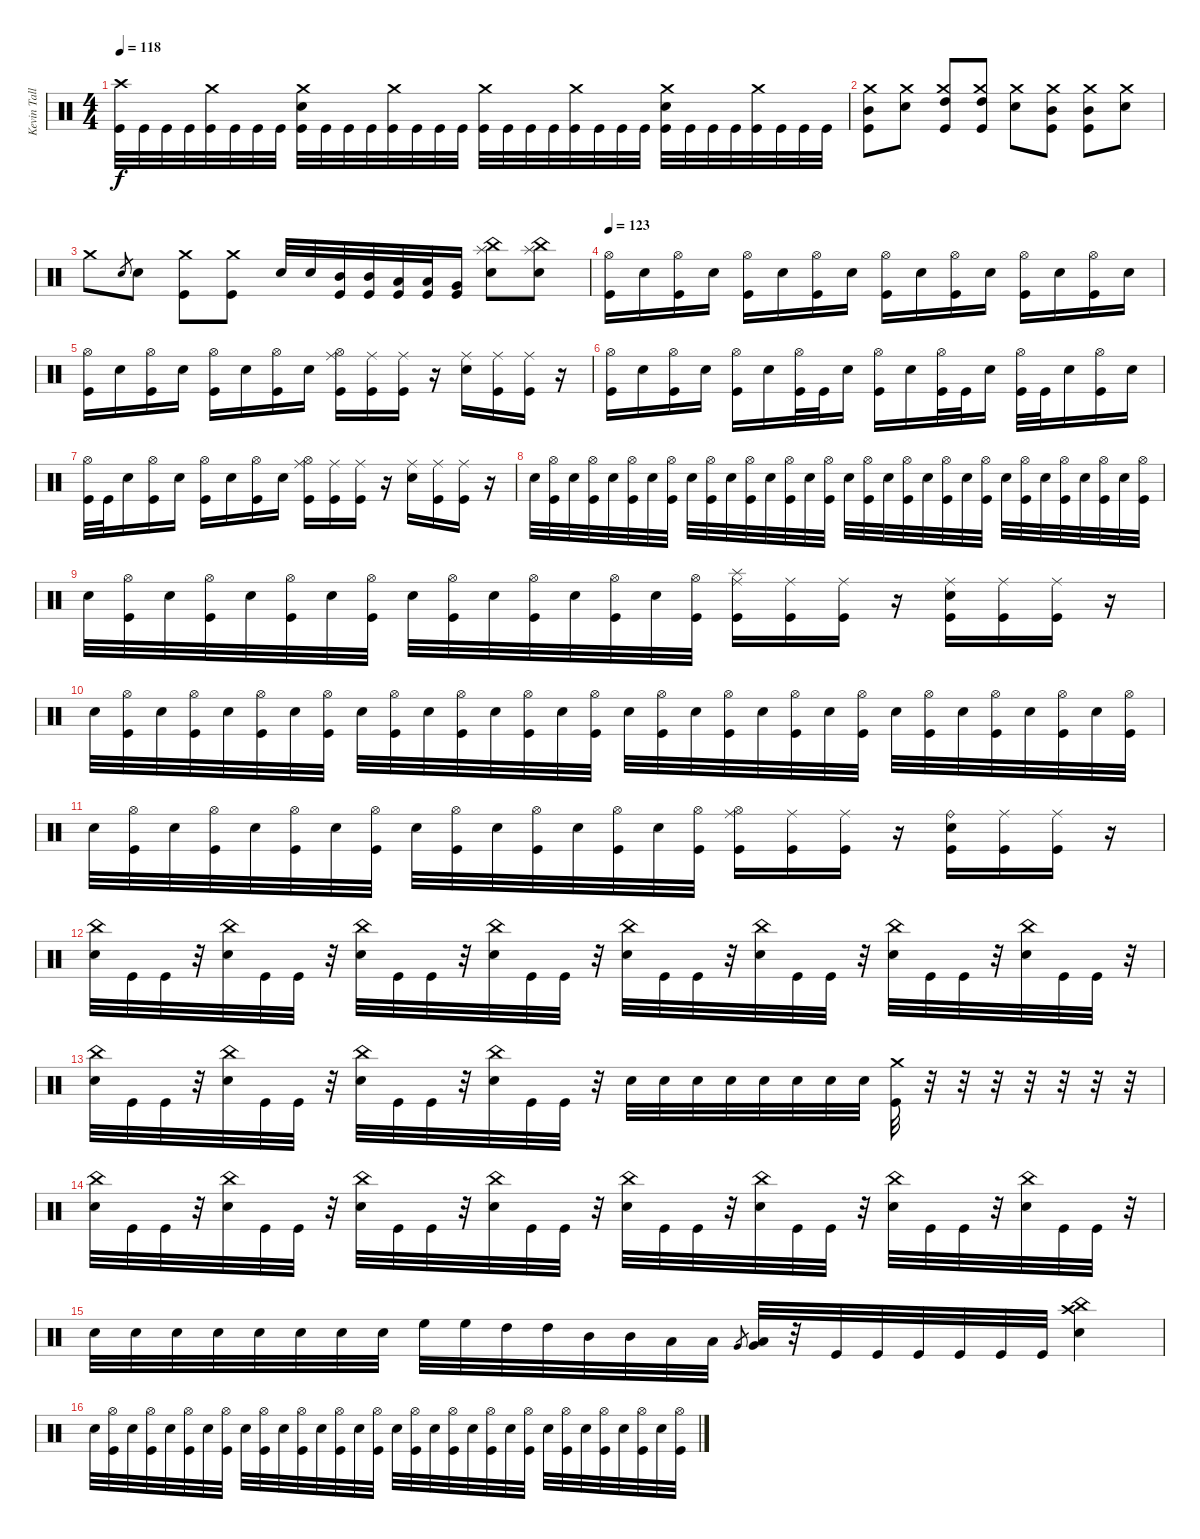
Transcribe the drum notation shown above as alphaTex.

\track ("Kevin Talley" "Kevin Tall") {instrument percussion}
\staff {score}
\articulation defaults
\ts (4 4)
\tempo 118
\clef neutral
\ks c
("Crash high (hit)" "Kick (hit)").32{dy f} "Kick (hit)".32 "Kick (hit)".32 "Kick (hit)".32 ("Crash medium (hit)" "Kick (hit)").32 "Kick (hit)".32 "Kick (hit)".32 "Kick (hit)".32 ("Crash medium (hit)" "Electric Snare (hit)" "Kick (hit)").32 "Kick (hit)".32 "Kick (hit)".32 "Kick (hit)".32 ("Crash medium (hit)" "Kick (hit)").32 "Kick (hit)".32 "Kick (hit)".32 "Kick (hit)".32 ("Crash medium (hit)" "Kick (hit)").32 "Kick (hit)".32 "Kick (hit)".32 "Kick (hit)".32 ("Crash medium (hit)" "Kick (hit)").32 "Kick (hit)".32 "Kick (hit)".32 "Kick (hit)".32 ("Crash medium (hit)" "Electric Snare (hit)" "Kick (hit)").32 "Kick (hit)".32 "Kick (hit)".32 "Kick (hit)".32 ("Crash medium (hit)" "Kick (hit)").32 "Kick (hit)".32 "Kick (hit)".32 "Kick (hit)".32 |
("Crash medium (hit)" "Mid Tom (hit)" "Kick (hit)").8 ("Crash medium (hit)" "Electric Snare (hit)").8 ("Crash medium (hit)" "High Tom (hit)" "Kick (hit)").8 ("Crash medium (hit)" "High Tom (hit)" "Kick (hit)").8 ("Crash medium (hit)" "Electric Snare (hit)").8 ("Crash medium (hit)" "Mid Tom (hit)" "Kick (hit)").8 ("Crash medium (hit)" "Mid Tom (hit)" "Kick (hit)").8 ("Crash medium (hit)" "Electric Snare (hit)").8 |
"Crash medium (hit)".8 "Electric Snare (hit)".8{gr} "Electric Snare (hit)".8 ("Crash medium (hit)" "Kick (hit)").8 ("Crash medium (hit)" "Kick (hit)").8 "Electric Snare (hit)".32 "Electric Snare (hit)".32 ("Mid Tom (hit)" "Kick (hit)").32 ("Mid Tom (hit)" "Kick (hit)").32 ("Low Tom (hit)" "Kick (hit)").32 ("Low Tom (hit)" "Kick (hit)").32 ("Very Low Tom (hit)" "Kick (hit)").16 ("China (hit)" "Splash (hit)" "Electric Snare (hit)").8 ("China (hit)" "Splash (hit)" "Electric Snare (hit)").8 |
\tempo 123
("Hi-Hat (open)" "Kick (hit)").16 "Electric Snare (hit)".16 ("Hi-Hat (open)" "Kick (hit)").16 "Electric Snare (hit)".16 ("Hi-Hat (open)" "Kick (hit)").16 "Electric Snare (hit)".16 ("Hi-Hat (open)" "Kick (hit)").16 "Electric Snare (hit)".16 ("Hi-Hat (open)" "Kick (hit)").16 "Electric Snare (hit)".16 ("Hi-Hat (open)" "Kick (hit)").16 "Electric Snare (hit)".16 ("Hi-Hat (open)" "Kick (hit)").16 "Electric Snare (hit)".16 ("Hi-Hat (open)" "Kick (hit)").16 "Electric Snare (hit)".16 |
("Hi-Hat (open)" "Kick (hit)").16 "Electric Snare (hit)".16 ("Hi-Hat (open)" "Kick (hit)").16 "Electric Snare (hit)".16 ("Hi-Hat (open)" "Kick (hit)").16 "Electric Snare (hit)".16 ("Hi-Hat (open)" "Kick (hit)").16 "Electric Snare (hit)".16 ("Ride (middle)" "Hi-Hat (open)" "Kick (hit)").16 ("Ride (middle)" "Kick (hit)").16 ("Ride (middle)" "Kick (hit)").16 r.16 ("Ride (middle)" "Electric Snare (hit)").16 ("Ride (middle)" "Kick (hit)").16 ("Ride (middle)" "Kick (hit)").16 r.16 |
("Hi-Hat (open)" "Kick (hit)").16 "Electric Snare (hit)".16 ("Hi-Hat (open)" "Kick (hit)").16 "Electric Snare (hit)".16 ("Hi-Hat (open)" "Kick (hit)").16 "Electric Snare (hit)".16 ("Hi-Hat (open)" "Kick (hit)").32 "Kick (hit)".32 "Electric Snare (hit)".16 ("Hi-Hat (open)" "Kick (hit)").16 "Electric Snare (hit)".16 ("Hi-Hat (open)" "Kick (hit)").32 "Kick (hit)".32 "Electric Snare (hit)".16 ("Hi-Hat (open)" "Kick (hit)").32 "Kick (hit)".32 "Electric Snare (hit)".16 ("Hi-Hat (open)" "Kick (hit)").16 "Electric Snare (hit)".16 |
("Hi-Hat (open)" "Kick (hit)").32 "Kick (hit)".32 "Electric Snare (hit)".16 ("Hi-Hat (open)" "Kick (hit)").16 "Electric Snare (hit)".16 ("Hi-Hat (open)" "Kick (hit)").16 "Electric Snare (hit)".16 ("Hi-Hat (open)" "Kick (hit)").16 "Electric Snare (hit)".16 ("Ride (middle)" "Hi-Hat (open)" "Kick (hit)").16 ("Ride (middle)" "Kick (hit)").16 ("Ride (middle)" "Kick (hit)").16 r.16 ("Ride (middle)" "Electric Snare (hit)").16 ("Ride (middle)" "Kick (hit)").16 ("Ride (middle)" "Kick (hit)").16 r.16 |
"Electric Snare (hit)".32 ("Hi-Hat (open)" "Kick (hit)").32 "Electric Snare (hit)".32 ("Hi-Hat (open)" "Kick (hit)").32 "Electric Snare (hit)".32 ("Hi-Hat (open)" "Kick (hit)").32 "Electric Snare (hit)".32 ("Hi-Hat (open)" "Kick (hit)").32 "Electric Snare (hit)".32 ("Hi-Hat (open)" "Kick (hit)").32 "Electric Snare (hit)".32 ("Hi-Hat (open)" "Kick (hit)").32 "Electric Snare (hit)".32 ("Hi-Hat (open)" "Kick (hit)").32 "Electric Snare (hit)".32 ("Hi-Hat (open)" "Kick (hit)").32 "Electric Snare (hit)".32 ("Hi-Hat (open)" "Kick (hit)").32 "Electric Snare (hit)".32 ("Hi-Hat (open)" "Kick (hit)").32 "Electric Snare (hit)".32 ("Hi-Hat (open)" "Kick (hit)").32 "Electric Snare (hit)".32 ("Hi-Hat (open)" "Kick (hit)").32 "Electric Snare (hit)".32 ("Hi-Hat (open)" "Kick (hit)").32 "Electric Snare (hit)".32 ("Hi-Hat (open)" "Kick (hit)").32 "Electric Snare (hit)".32 ("Hi-Hat (open)" "Kick (hit)").32 "Electric Snare (hit)".32 ("Hi-Hat (open)" "Kick (hit)").32 |
"Electric Snare (hit)".32 ("Hi-Hat (open)" "Kick (hit)").32 "Electric Snare (hit)".32 ("Hi-Hat (open)" "Kick (hit)").32 "Electric Snare (hit)".32 ("Hi-Hat (open)" "Kick (hit)").32 "Electric Snare (hit)".32 ("Hi-Hat (open)" "Kick (hit)").32 "Electric Snare (hit)".32 ("Hi-Hat (open)" "Kick (hit)").32 "Electric Snare (hit)".32 ("Hi-Hat (open)" "Kick (hit)").32 "Electric Snare (hit)".32 ("Hi-Hat (open)" "Kick (hit)").32 "Electric Snare (hit)".32 ("Hi-Hat (open)" "Kick (hit)").32 ("Splash (hit)" "Ride (middle)" "Kick (hit)").16 ("Ride (middle)" "Kick (hit)").16 ("Ride (middle)" "Kick (hit)").16 r.16 ("Ride (middle)" "Electric Snare (hit)" "Kick (hit)").16 ("Ride (middle)" "Kick (hit)").16 ("Ride (middle)" "Kick (hit)").16 r.16 |
"Electric Snare (hit)".32 ("Hi-Hat (open)" "Kick (hit)").32 "Electric Snare (hit)".32 ("Hi-Hat (open)" "Kick (hit)").32 "Electric Snare (hit)".32 ("Hi-Hat (open)" "Kick (hit)").32 "Electric Snare (hit)".32 ("Hi-Hat (open)" "Kick (hit)").32 "Electric Snare (hit)".32 ("Hi-Hat (open)" "Kick (hit)").32 "Electric Snare (hit)".32 ("Hi-Hat (open)" "Kick (hit)").32 "Electric Snare (hit)".32 ("Hi-Hat (open)" "Kick (hit)").32 "Electric Snare (hit)".32 ("Hi-Hat (open)" "Kick (hit)").32 "Electric Snare (hit)".32 ("Hi-Hat (open)" "Kick (hit)").32 "Electric Snare (hit)".32 ("Hi-Hat (open)" "Kick (hit)").32 "Electric Snare (hit)".32 ("Hi-Hat (open)" "Kick (hit)").32 "Electric Snare (hit)".32 ("Hi-Hat (open)" "Kick (hit)").32 "Electric Snare (hit)".32 ("Hi-Hat (open)" "Kick (hit)").32 "Electric Snare (hit)".32 ("Hi-Hat (open)" "Kick (hit)").32 "Electric Snare (hit)".32 ("Hi-Hat (open)" "Kick (hit)").32 "Electric Snare (hit)".32 ("Hi-Hat (open)" "Kick (hit)").32 |
"Electric Snare (hit)".32 ("Hi-Hat (open)" "Kick (hit)").32 "Electric Snare (hit)".32 ("Hi-Hat (open)" "Kick (hit)").32 "Electric Snare (hit)".32 ("Hi-Hat (open)" "Kick (hit)").32 "Electric Snare (hit)".32 ("Hi-Hat (open)" "Kick (hit)").32 "Electric Snare (hit)".32 ("Hi-Hat (open)" "Kick (hit)").32 "Electric Snare (hit)".32 ("Hi-Hat (open)" "Kick (hit)").32 "Electric Snare (hit)".32 ("Hi-Hat (open)" "Kick (hit)").32 "Electric Snare (hit)".32 ("Hi-Hat (open)" "Kick (hit)").32 ("Ride (middle)" "Hi-Hat (open)" "Kick (hit)").16 ("Ride (middle)" "Kick (hit)").16 ("Ride (middle)" "Kick (hit)").16 r.16 ("Ride (bell)" "Electric Snare (hit)" "Kick (hit)").16 ("Ride (middle)" "Kick (hit)").16 ("Ride (middle)" "Kick (hit)").16 r.16 |
("China (hit)" "Electric Snare (hit)").32 "Kick (hit)".32 "Kick (hit)".32 r.32 ("China (hit)" "Electric Snare (hit)").32 "Kick (hit)".32 "Kick (hit)".32 r.32 ("China (hit)" "Electric Snare (hit)").32 "Kick (hit)".32 "Kick (hit)".32 r.32 ("China (hit)" "Electric Snare (hit)").32 "Kick (hit)".32 "Kick (hit)".32 r.32 ("China (hit)" "Electric Snare (hit)").32 "Kick (hit)".32 "Kick (hit)".32 r.32 ("China (hit)" "Electric Snare (hit)").32 "Kick (hit)".32 "Kick (hit)".32 r.32 ("China (hit)" "Electric Snare (hit)").32 "Kick (hit)".32 "Kick (hit)".32 r.32 ("China (hit)" "Electric Snare (hit)").32 "Kick (hit)".32 "Kick (hit)".32 r.32 |
("China (hit)" "Electric Snare (hit)").32 "Kick (hit)".32 "Kick (hit)".32 r.32 ("China (hit)" "Electric Snare (hit)").32 "Kick (hit)".32 "Kick (hit)".32 r.32 ("China (hit)" "Electric Snare (hit)").32 "Kick (hit)".32 "Kick (hit)".32 r.32 ("China (hit)" "Electric Snare (hit)").32 "Kick (hit)".32 "Kick (hit)".32 r.32 "Electric Snare (hit)".32 "Electric Snare (hit)".32 "Electric Snare (hit)".32 "Electric Snare (hit)".32 "Electric Snare (hit)".32 "Electric Snare (hit)".32 "Electric Snare (hit)".32 "Electric Snare (hit)".32 ("Crash medium (hit)" "Kick (hit)").32 r.32 r.32 r.32 r.32 r.32 r.32 r.32 |
("China (hit)" "Electric Snare (hit)").32 "Kick (hit)".32 "Kick (hit)".32 r.32 ("China (hit)" "Electric Snare (hit)").32 "Kick (hit)".32 "Kick (hit)".32 r.32 ("China (hit)" "Electric Snare (hit)").32 "Kick (hit)".32 "Kick (hit)".32 r.32 ("China (hit)" "Electric Snare (hit)").32 "Kick (hit)".32 "Kick (hit)".32 r.32 ("China (hit)" "Electric Snare (hit)").32 "Kick (hit)".32 "Kick (hit)".32 r.32 ("China (hit)" "Electric Snare (hit)").32 "Kick (hit)".32 "Kick (hit)".32 r.32 ("China (hit)" "Electric Snare (hit)").32 "Kick (hit)".32 "Kick (hit)".32 r.32 ("China (hit)" "Electric Snare (hit)").32 "Kick (hit)".32 "Kick (hit)".32 r.32 |
"Electric Snare (hit)".32 "Electric Snare (hit)".32 "Electric Snare (hit)".32 "Electric Snare (hit)".32 "Electric Snare (hit)".32 "Electric Snare (hit)".32 "Electric Snare (hit)".32 "Electric Snare (hit)".32 "High Floor Tom (hit)".32 "High Floor Tom (hit)".32 "High Tom (hit)".32 "High Tom (hit)".32 "Mid Tom (hit)".32 "Mid Tom (hit)".32 "Low Tom (hit)".32 "Low Tom (hit)".32 "Very Low Tom (hit)".8{gr} ("Very Low Tom (hit)" "Low Tom (hit)").32 r.32 "Kick (hit)".32 "Kick (hit)".32 "Kick (hit)".32 "Kick (hit)".32 "Kick (hit)".32 "Kick (hit)".32 ("Crash high (hit)" "China (hit)" "Electric Snare (hit)").4 |
"Electric Snare (hit)".32 ("Hi-Hat (open)" "Kick (hit)").32 "Electric Snare (hit)".32 ("Hi-Hat (open)" "Kick (hit)").32 "Electric Snare (hit)".32 ("Hi-Hat (open)" "Kick (hit)").32 "Electric Snare (hit)".32 ("Hi-Hat (open)" "Kick (hit)").32 "Electric Snare (hit)".32 ("Hi-Hat (open)" "Kick (hit)").32 "Electric Snare (hit)".32 ("Hi-Hat (open)" "Kick (hit)").32 "Electric Snare (hit)".32 ("Hi-Hat (open)" "Kick (hit)").32 "Electric Snare (hit)".32 ("Hi-Hat (open)" "Kick (hit)").32 "Electric Snare (hit)".32 ("Hi-Hat (open)" "Kick (hit)").32 "Electric Snare (hit)".32 ("Hi-Hat (open)" "Kick (hit)").32 "Electric Snare (hit)".32 ("Hi-Hat (open)" "Kick (hit)").32 "Electric Snare (hit)".32 ("Hi-Hat (open)" "Kick (hit)").32 "Electric Snare (hit)".32 ("Hi-Hat (open)" "Kick (hit)").32 "Electric Snare (hit)".32 ("Hi-Hat (open)" "Kick (hit)").32 "Electric Snare (hit)".32 ("Hi-Hat (open)" "Kick (hit)").32 "Electric Snare (hit)".32 ("Hi-Hat (open)" "Kick (hit)").32
